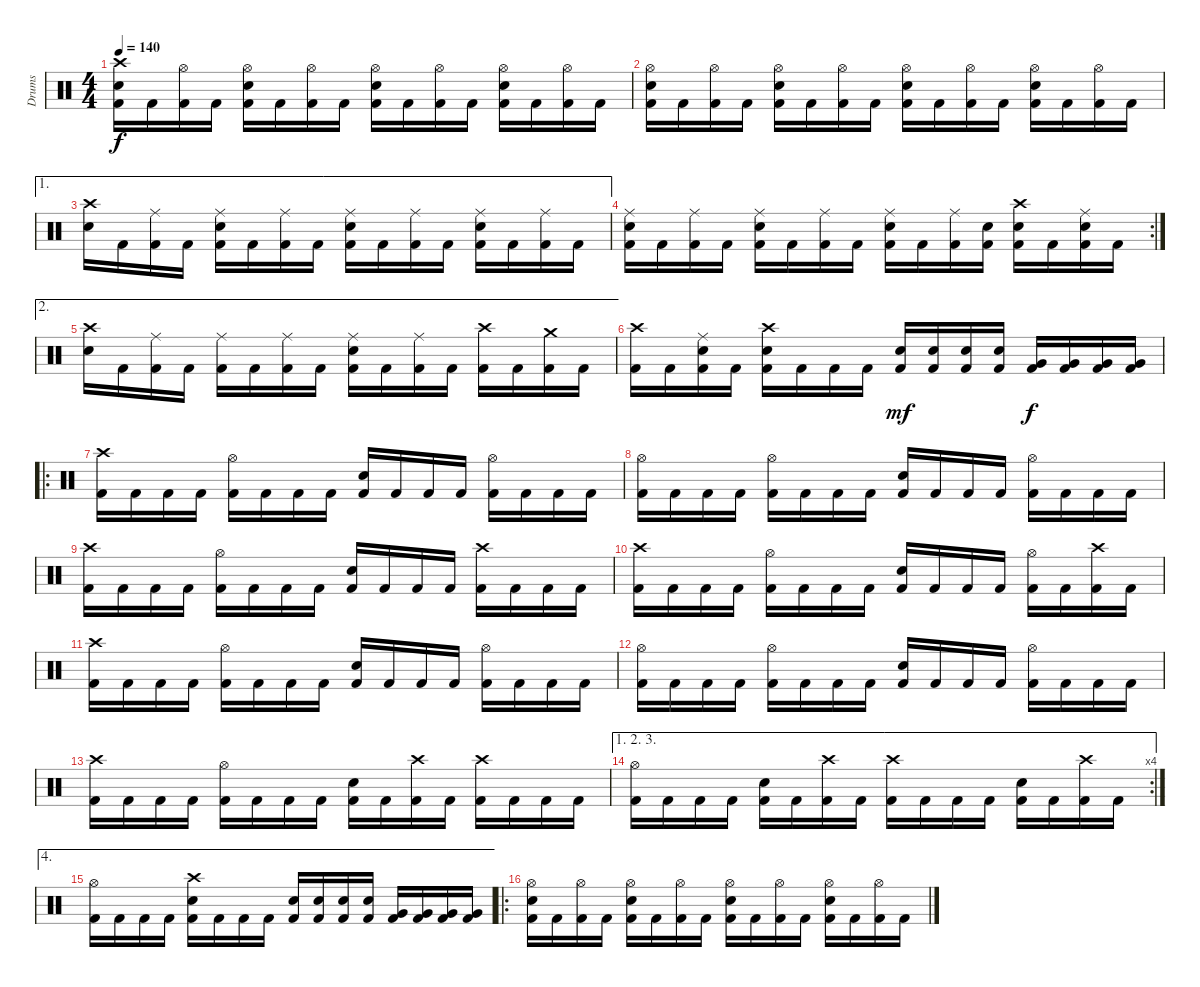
\track ("Drums" "Drums") {instrument percussion}
\staff {score}
\articulation defaults
\ts (4 4)
\tempo 140
\clef neutral
\ks c
("Crash high (hit)" "Snare (hit) 2" "Kick (hit) 2").16{dy f} "Kick (hit) 2".16 ("Hi-Hat (open)" "Kick (hit) 2").16 "Kick (hit) 2".16 ("Hi-Hat (open)" "Snare (hit) 2" "Kick (hit) 2").16 "Kick (hit) 2".16 ("Hi-Hat (open)" "Kick (hit) 2").16 "Kick (hit) 2".16 ("Hi-Hat (open)" "Snare (hit) 2" "Kick (hit) 2").16 "Kick (hit) 2".16 ("Hi-Hat (open)" "Kick (hit) 2").16 "Kick (hit) 2".16 ("Hi-Hat (open)" "Snare (hit) 2" "Kick (hit) 2").16 "Kick (hit) 2".16 ("Hi-Hat (open)" "Kick (hit) 2").16 "Kick (hit) 2".16 |
("Hi-Hat (open)" "Snare (hit) 2" "Kick (hit) 2").16 "Kick (hit) 2".16 ("Hi-Hat (open)" "Kick (hit) 2").16 "Kick (hit) 2".16 ("Hi-Hat (open)" "Snare (hit) 2" "Kick (hit) 2").16 "Kick (hit) 2".16 ("Hi-Hat (open)" "Kick (hit) 2").16 "Kick (hit) 2".16 ("Hi-Hat (open)" "Snare (hit) 2" "Kick (hit) 2").16 "Kick (hit) 2".16 ("Hi-Hat (open)" "Kick (hit) 2").16 "Kick (hit) 2".16 ("Hi-Hat (open)" "Snare (hit) 2" "Kick (hit) 2").16 "Kick (hit) 2".16 ("Hi-Hat (open)" "Kick (hit) 2").16 "Kick (hit) 2".16 |
\ae 1
("Crash high (hit)" "Snare (hit) 2").16 "Kick (hit) 2".16 ("Ride (middle)" "Kick (hit) 2").16 "Kick (hit) 2".16 ("Ride (middle)" "Snare (hit) 2" "Kick (hit) 2").16 "Kick (hit) 2".16 ("Ride (middle)" "Kick (hit) 2").16 "Kick (hit) 2".16 ("Ride (middle)" "Snare (hit) 2" "Kick (hit) 2").16 "Kick (hit) 2".16 ("Ride (middle)" "Kick (hit) 2").16 "Kick (hit) 2".16 ("Ride (middle)" "Snare (hit) 2" "Kick (hit) 2").16 "Kick (hit) 2".16 ("Ride (middle)" "Kick (hit) 2").16 "Kick (hit) 2".16 |
\rc 2
("Ride (middle)" "Snare (hit) 2" "Kick (hit) 2").16 "Kick (hit) 2".16 ("Ride (middle)" "Kick (hit) 2").16 "Kick (hit) 2".16 ("Ride (middle)" "Snare (hit) 2" "Kick (hit) 2").16 "Kick (hit) 2".16 ("Ride (middle)" "Kick (hit) 2").16 "Kick (hit) 2".16 ("Ride (middle)" "Snare (hit) 2" "Kick (hit) 2").16 "Kick (hit) 2".16 ("Ride (middle)" "Kick (hit) 2").16 ("Snare (hit) 2" "Kick (hit) 2").16 ("Crash high (hit)" "Snare (hit) 2" "Kick (hit) 2").16 "Kick (hit) 2".16 ("Ride (middle)" "Snare (hit) 2" "Kick (hit) 2").16 "Kick (hit) 2".16 |
\ae 2
("Crash high (hit)" "Snare (hit) 2").16 "Kick (hit) 2".16 ("Ride (middle)" "Kick (hit) 2").16 "Kick (hit) 2".16 ("Ride (middle)" "Kick (hit) 2").16 "Kick (hit) 2".16 ("Ride (middle)" "Kick (hit) 2").16 "Kick (hit) 2".16 ("Ride (middle)" "Snare (hit) 2" "Kick (hit) 2").16 "Kick (hit) 2".16 ("Ride (middle)" "Kick (hit) 2").16 "Kick (hit) 2".16 ("Crash high (hit)" "Kick (hit) 2").16 "Kick (hit) 2".16 ("Crash medium (hit)" "Kick (hit) 2").16 "Kick (hit) 2".16 |
("Crash high (hit)" "Kick (hit) 2").16 "Kick (hit) 2".16 ("Ride (middle)" "Snare (hit) 2" "Kick (hit) 2").16 "Kick (hit) 2".16 ("Crash high (hit)" "Snare (hit) 2" "Kick (hit) 2").16 "Kick (hit) 2".16 "Kick (hit) 2".16 "Kick (hit) 2".16 ("Snare (hit) 2" "Kick (hit) 2").16{dy mf} ("Snare (hit) 2" "Kick (hit) 2").16 ("Snare (hit) 2" "Kick (hit) 2").16 ("Snare (hit) 2" "Kick (hit) 2").16 ("Very Low Tom (hit)" "Kick (hit) 2").16{dy f} ("Very Low Tom (hit)" "Kick (hit) 2").16 ("Very Low Tom (hit)" "Kick (hit) 2").16 ("Very Low Tom (hit)" "Kick (hit) 2").16 |
\ro
("Crash high (hit)" "Kick (hit) 2").16 "Kick (hit) 2".16 "Kick (hit) 2".16 "Kick (hit) 2".16 ("Hi-Hat (open)" "Kick (hit) 2").16 "Kick (hit) 2".16 "Kick (hit) 2".16 "Kick (hit) 2".16 ("Snare (hit) 2" "Kick (hit) 2").16 "Kick (hit) 2".16 "Kick (hit) 2".16 "Kick (hit) 2".16 ("Hi-Hat (open)" "Kick (hit) 2").16 "Kick (hit) 2".16 "Kick (hit) 2".16 "Kick (hit) 2".16 |
("Hi-Hat (open)" "Kick (hit) 2").16 "Kick (hit) 2".16 "Kick (hit) 2".16 "Kick (hit) 2".16 ("Hi-Hat (open)" "Kick (hit) 2").16 "Kick (hit) 2".16 "Kick (hit) 2".16 "Kick (hit) 2".16 ("Snare (hit) 2" "Kick (hit) 2").16 "Kick (hit) 2".16 "Kick (hit) 2".16 "Kick (hit) 2".16 ("Hi-Hat (open)" "Kick (hit) 2").16 "Kick (hit) 2".16 "Kick (hit) 2".16 "Kick (hit) 2".16 |
("Crash high (hit)" "Kick (hit) 2").16 "Kick (hit) 2".16 "Kick (hit) 2".16 "Kick (hit) 2".16 ("Hi-Hat (open)" "Kick (hit) 2").16 "Kick (hit) 2".16 "Kick (hit) 2".16 "Kick (hit) 2".16 ("Snare (hit) 2" "Kick (hit) 2").16 "Kick (hit) 2".16 "Kick (hit) 2".16 "Kick (hit) 2".16 ("Crash high (hit)" "Kick (hit) 2").16 "Kick (hit) 2".16 "Kick (hit) 2".16 "Kick (hit) 2".16 |
("Crash high (hit)" "Kick (hit) 2").16 "Kick (hit) 2".16 "Kick (hit) 2".16 "Kick (hit) 2".16 ("Hi-Hat (open)" "Kick (hit) 2").16 "Kick (hit) 2".16 "Kick (hit) 2".16 "Kick (hit) 2".16 ("Snare (hit) 2" "Kick (hit) 2").16 "Kick (hit) 2".16 "Kick (hit) 2".16 "Kick (hit) 2".16 ("Hi-Hat (open)" "Kick (hit) 2").16 "Kick (hit) 2".16 ("Crash high (hit)" "Kick (hit) 2").16 "Kick (hit) 2".16 |
("Crash high (hit)" "Kick (hit) 2").16 "Kick (hit) 2".16 "Kick (hit) 2".16 "Kick (hit) 2".16 ("Hi-Hat (open)" "Kick (hit) 2").16 "Kick (hit) 2".16 "Kick (hit) 2".16 "Kick (hit) 2".16 ("Snare (hit) 2" "Kick (hit) 2").16 "Kick (hit) 2".16 "Kick (hit) 2".16 "Kick (hit) 2".16 ("Hi-Hat (open)" "Kick (hit) 2").16 "Kick (hit) 2".16 "Kick (hit) 2".16 "Kick (hit) 2".16 |
("Hi-Hat (open)" "Kick (hit) 2").16 "Kick (hit) 2".16 "Kick (hit) 2".16 "Kick (hit) 2".16 ("Hi-Hat (open)" "Kick (hit) 2").16 "Kick (hit) 2".16 "Kick (hit) 2".16 "Kick (hit) 2".16 ("Snare (hit) 2" "Kick (hit) 2").16 "Kick (hit) 2".16 "Kick (hit) 2".16 "Kick (hit) 2".16 ("Hi-Hat (open)" "Kick (hit) 2").16 "Kick (hit) 2".16 "Kick (hit) 2".16 "Kick (hit) 2".16 |
("Crash high (hit)" "Kick (hit) 2").16 "Kick (hit) 2".16 "Kick (hit) 2".16 "Kick (hit) 2".16 ("Hi-Hat (open)" "Kick (hit) 2").16 "Kick (hit) 2".16 "Kick (hit) 2".16 "Kick (hit) 2".16 ("Snare (hit) 2" "Kick (hit) 2").16 "Kick (hit) 2".16 ("Crash high (hit)" "Kick (hit) 2").16 "Kick (hit) 2".16 ("Crash high (hit)" "Kick (hit) 2").16 "Kick (hit) 2".16 "Kick (hit) 2".16 "Kick (hit) 2".16 |
\ae (1 2 3)
\rc 4
("Hi-Hat (open)" "Kick (hit) 2").16 "Kick (hit) 2".16 "Kick (hit) 2".16 "Kick (hit) 2".16 ("Snare (hit) 2" "Kick (hit) 2").16 "Kick (hit) 2".16 ("Crash high (hit)" "Kick (hit) 2").16 "Kick (hit) 2".16 ("Crash high (hit)" "Kick (hit) 2").16 "Kick (hit) 2".16 "Kick (hit) 2".16 "Kick (hit) 2".16 ("Snare (hit) 2" "Kick (hit) 2").16 "Kick (hit) 2".16 ("Crash high (hit)" "Kick (hit) 2").16 "Kick (hit) 2".16 |
\ae 4
("Hi-Hat (open)" "Kick (hit) 2").16 "Kick (hit) 2".16 "Kick (hit) 2".16 "Kick (hit) 2".16 ("Crash high (hit)" "Snare (hit) 2" "Kick (hit) 2").16 "Kick (hit) 2".16 "Kick (hit) 2".16 "Kick (hit) 2".16 ("Snare (hit) 2" "Kick (hit) 2").16 ("Snare (hit) 2" "Kick (hit) 2").16 ("Snare (hit) 2" "Kick (hit) 2").16 ("Snare (hit) 2" "Kick (hit) 2").16 ("Very Low Tom (hit)" "Kick (hit) 2").16 ("Very Low Tom (hit)" "Kick (hit) 2").16 ("Very Low Tom (hit)" "Kick (hit) 2").16 ("Very Low Tom (hit)" "Kick (hit) 2").16 |
\ro
("Hi-Hat (open)" "Snare (hit) 2" "Kick (hit) 2").16 "Kick (hit) 2".16 ("Hi-Hat (open)" "Kick (hit) 2").16 "Kick (hit) 2".16 ("Hi-Hat (open)" "Snare (hit) 2" "Kick (hit) 2").16 "Kick (hit) 2".16 ("Hi-Hat (open)" "Kick (hit) 2").16 "Kick (hit) 2".16 ("Hi-Hat (open)" "Snare (hit) 2" "Kick (hit) 2").16 "Kick (hit) 2".16 ("Hi-Hat (open)" "Kick (hit) 2").16 "Kick (hit) 2".16 ("Hi-Hat (open)" "Snare (hit) 2" "Kick (hit) 2").16 "Kick (hit) 2".16 ("Hi-Hat (open)" "Kick (hit) 2").16 "Kick (hit) 2".16
